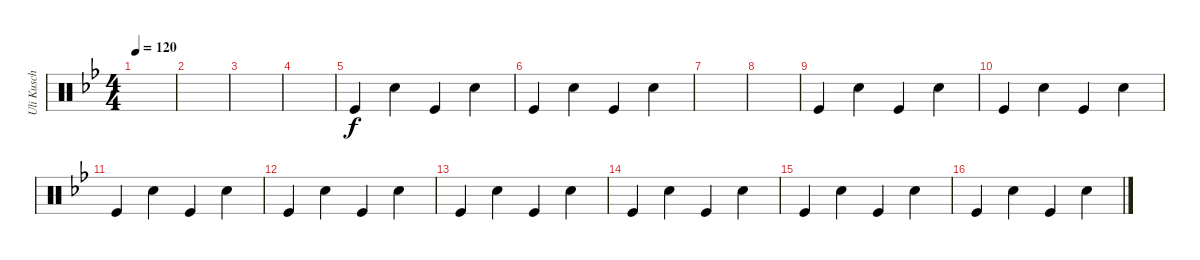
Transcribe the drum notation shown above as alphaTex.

\track ("Uli Kusch" "Uli Kusch") {instrument percussion}
\staff {score}
\articulation defaults
\ts (4 4)
\tempo 120
\clef neutral
\ks gminor
|
|
|
|
"Kick (hit)".4 "Snare (hit) 2".4 "Kick (hit)".4 "Snare (hit) 2".4 |
"Kick (hit)".4 "Snare (hit) 2".4 "Kick (hit)".4 "Snare (hit) 2".4 |
|
|
"Kick (hit)".4 "Snare (hit) 2".4 "Kick (hit)".4 "Snare (hit) 2".4 |
"Kick (hit)".4 "Snare (hit) 2".4 "Kick (hit)".4 "Snare (hit) 2".4 |
"Kick (hit)".4 "Snare (hit) 2".4 "Kick (hit)".4 "Snare (hit) 2".4 |
"Kick (hit)".4 "Snare (hit) 2".4 "Kick (hit)".4 "Snare (hit) 2".4 |
"Kick (hit)".4 "Snare (hit) 2".4 "Kick (hit)".4 "Snare (hit) 2".4 |
"Kick (hit)".4 "Snare (hit) 2".4 "Kick (hit)".4 "Snare (hit) 2".4 |
"Kick (hit)".4 "Snare (hit) 2".4 "Kick (hit)".4 "Snare (hit) 2".4 |
"Kick (hit)".4 "Snare (hit) 2".4 "Kick (hit)".4 "Snare (hit) 2".4
